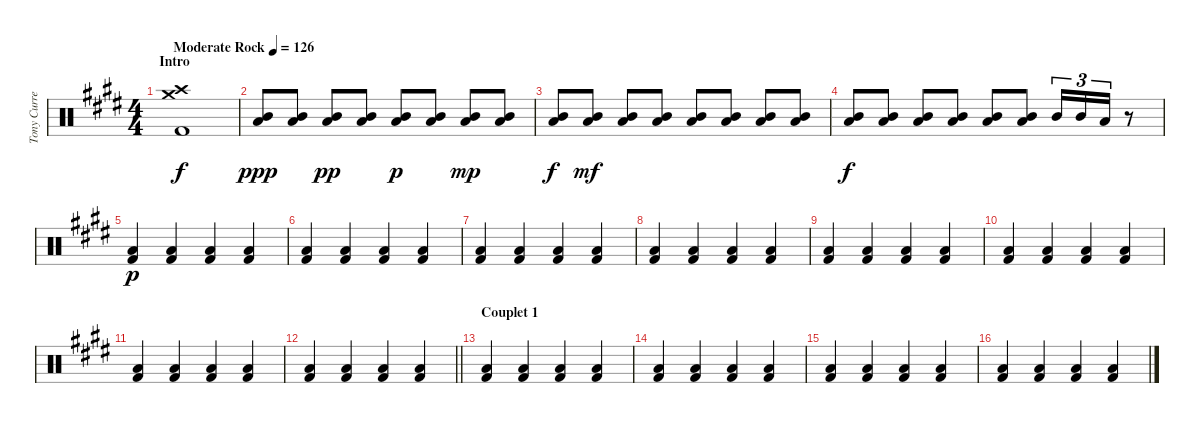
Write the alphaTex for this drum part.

\track ("Tony Currenti" "Tony Curre") {instrument percussion}
\staff {score}
\articulation defaults
\ts (4 4)
\section ("" "Intro")
\tempo (126 "Moderate Rock")
\clef neutral
\ks e
("Crash high (hit)" "Crash medium (hit)" "Kick (hit) 2").1{dy f} |
("Mid Tom (hit)" "Low Tom (hit)").8{dy ppp volume 0} ("Mid Tom (hit)" "Low Tom (hit)").8{volume 13} ("Mid Tom (hit)" "Low Tom (hit)").8{dy pp} ("Mid Tom (hit)" "Low Tom (hit)").8 ("Mid Tom (hit)" "Low Tom (hit)").8{dy p} ("Mid Tom (hit)" "Low Tom (hit)").8 ("Mid Tom (hit)" "Low Tom (hit)").8{dy mp} ("Mid Tom (hit)" "Low Tom (hit)").8 |
("Mid Tom (hit)" "Low Tom (hit)").8{dy f} ("Mid Tom (hit)" "Low Tom (hit)").8{dy mf} ("Mid Tom (hit)" "Low Tom (hit)").8 ("Mid Tom (hit)" "Low Tom (hit)").8 ("Mid Tom (hit)" "Low Tom (hit)").8 ("Mid Tom (hit)" "Low Tom (hit)").8 ("Mid Tom (hit)" "Low Tom (hit)").8 ("Mid Tom (hit)" "Low Tom (hit)").8 |
("Mid Tom (hit)" "Low Tom (hit)").8{dy f} ("Mid Tom (hit)" "Low Tom (hit)").8 ("Mid Tom (hit)" "Low Tom (hit)").8 ("Mid Tom (hit)" "Low Tom (hit)").8 ("Mid Tom (hit)" "Low Tom (hit)").8 ("Mid Tom (hit)" "Low Tom (hit)").8 "Mid Tom (hit)".16{tu (3 2)} "Mid Tom (hit)".16{tu (3 2)} "Low Tom (hit)".16{tu (3 2)} r.8 |
("Low Tom (hit)" "Kick (hit) 2").4{dy p} ("Low Tom (hit)" "Kick (hit) 2").4 ("Low Tom (hit)" "Kick (hit) 2").4 ("Low Tom (hit)" "Kick (hit) 2").4 |
("Low Tom (hit)" "Kick (hit) 2").4 ("Low Tom (hit)" "Kick (hit) 2").4 ("Low Tom (hit)" "Kick (hit) 2").4 ("Low Tom (hit)" "Kick (hit) 2").4 |
("Low Tom (hit)" "Kick (hit) 2").4 ("Low Tom (hit)" "Kick (hit) 2").4 ("Low Tom (hit)" "Kick (hit) 2").4 ("Low Tom (hit)" "Kick (hit) 2").4 |
("Low Tom (hit)" "Kick (hit) 2").4 ("Low Tom (hit)" "Kick (hit) 2").4 ("Low Tom (hit)" "Kick (hit) 2").4 ("Low Tom (hit)" "Kick (hit) 2").4 |
("Low Tom (hit)" "Kick (hit) 2").4 ("Low Tom (hit)" "Kick (hit) 2").4 ("Low Tom (hit)" "Kick (hit) 2").4 ("Low Tom (hit)" "Kick (hit) 2").4 |
("Low Tom (hit)" "Kick (hit) 2").4 ("Low Tom (hit)" "Kick (hit) 2").4 ("Low Tom (hit)" "Kick (hit) 2").4 ("Low Tom (hit)" "Kick (hit) 2").4 |
("Low Tom (hit)" "Kick (hit) 2").4 ("Low Tom (hit)" "Kick (hit) 2").4 ("Low Tom (hit)" "Kick (hit) 2").4 ("Low Tom (hit)" "Kick (hit) 2").4 |
\barLineRight lightlight
("Low Tom (hit)" "Kick (hit) 2").4 ("Low Tom (hit)" "Kick (hit) 2").4 ("Low Tom (hit)" "Kick (hit) 2").4 ("Low Tom (hit)" "Kick (hit) 2").4 |
\section ("" "Couplet 1")
("Low Tom (hit)" "Kick (hit) 2").4 ("Low Tom (hit)" "Kick (hit) 2").4 ("Low Tom (hit)" "Kick (hit) 2").4 ("Low Tom (hit)" "Kick (hit) 2").4 |
("Low Tom (hit)" "Kick (hit) 2").4 ("Low Tom (hit)" "Kick (hit) 2").4 ("Low Tom (hit)" "Kick (hit) 2").4 ("Low Tom (hit)" "Kick (hit) 2").4 |
("Low Tom (hit)" "Kick (hit) 2").4 ("Low Tom (hit)" "Kick (hit) 2").4 ("Low Tom (hit)" "Kick (hit) 2").4 ("Low Tom (hit)" "Kick (hit) 2").4 |
("Low Tom (hit)" "Kick (hit) 2").4 ("Low Tom (hit)" "Kick (hit) 2").4 ("Low Tom (hit)" "Kick (hit) 2").4 ("Low Tom (hit)" "Kick (hit) 2").4
